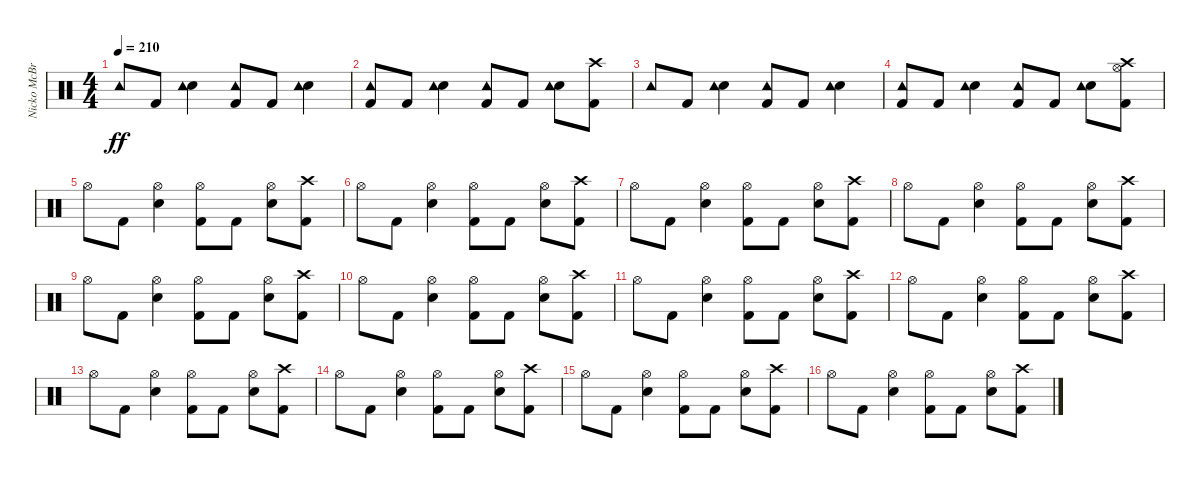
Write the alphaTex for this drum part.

\track ("Nicko McBrain" "Nicko McBr") {instrument percussion}
\staff {score}
\articulation defaults
\ts (4 4)
\tempo 210
\clef neutral
\ks c "Tambourine (hit)".8{dy ff} "Kick (hit) 2".8
("Snare (hit) 2" "Tambourine (hit)").4 ("Kick (hit) 2" "Tambourine (hit)").8 "Kick (hit) 2".8 ("Snare (hit) 2" "Tambourine (hit)").4 |
("Kick (hit) 2" "Tambourine (hit)").8 "Kick (hit) 2".8 ("Snare (hit) 2" "Tambourine (hit)").4 ("Kick (hit) 2" "Tambourine (hit)").8 "Kick (hit) 2".8 ("Snare (hit) 2" "Tambourine (hit)").8 ("Kick (hit) 2" "Crash high (hit)").8 |
"Tambourine (hit)".8 "Kick (hit) 2".8 ("Snare (hit) 2" "Tambourine (hit)").4 ("Kick (hit) 2" "Tambourine (hit)").8 "Kick (hit) 2".8 ("Snare (hit) 2" "Tambourine (hit)").4 |
("Kick (hit) 2" "Tambourine (hit)").8 "Kick (hit) 2".8 ("Snare (hit) 2" "Tambourine (hit)").4 ("Kick (hit) 2" "Tambourine (hit)").8 "Kick (hit) 2".8 ("Snare (hit) 2" "Tambourine (hit)").8 ("Kick (hit) 2" "Hi-Hat (open)" "Crash high (hit)").8 |
"Hi-Hat (open)".8 "Kick (hit) 2".8 ("Snare (hit) 2" "Hi-Hat (open)").4 ("Kick (hit) 2" "Hi-Hat (open)").8 "Kick (hit) 2".8 ("Snare (hit) 2" "Hi-Hat (open)").8 ("Kick (hit) 2" "Crash high (hit)").8 |
"Hi-Hat (open)".8 "Kick (hit) 2".8 ("Snare (hit) 2" "Hi-Hat (open)").4 ("Kick (hit) 2" "Hi-Hat (open)").8 "Kick (hit) 2".8 ("Snare (hit) 2" "Hi-Hat (open)").8 ("Kick (hit) 2" "Crash high (hit)").8 |
"Hi-Hat (open)".8 "Kick (hit) 2".8 ("Snare (hit) 2" "Hi-Hat (open)").4 ("Kick (hit) 2" "Hi-Hat (open)").8 "Kick (hit) 2".8 ("Snare (hit) 2" "Hi-Hat (open)").8 ("Kick (hit) 2" "Crash high (hit)").8 |
"Hi-Hat (open)".8 "Kick (hit) 2".8 ("Snare (hit) 2" "Hi-Hat (open)").4 ("Kick (hit) 2" "Hi-Hat (open)").8 "Kick (hit) 2".8 ("Snare (hit) 2" "Hi-Hat (open)").8 ("Kick (hit) 2" "Crash high (hit)").8 |
"Hi-Hat (open)".8 "Kick (hit) 2".8 ("Snare (hit) 2" "Hi-Hat (open)").4 ("Kick (hit) 2" "Hi-Hat (open)").8 "Kick (hit) 2".8 ("Snare (hit) 2" "Hi-Hat (open)").8 ("Kick (hit) 2" "Crash high (hit)").8 |
"Hi-Hat (open)".8 "Kick (hit) 2".8 ("Snare (hit) 2" "Hi-Hat (open)").4 ("Kick (hit) 2" "Hi-Hat (open)").8 "Kick (hit) 2".8 ("Snare (hit) 2" "Hi-Hat (open)").8 ("Kick (hit) 2" "Crash high (hit)").8 |
"Hi-Hat (open)".8 "Kick (hit) 2".8 ("Snare (hit) 2" "Hi-Hat (open)").4 ("Kick (hit) 2" "Hi-Hat (open)").8 "Kick (hit) 2".8 ("Snare (hit) 2" "Hi-Hat (open)").8 ("Kick (hit) 2" "Crash high (hit)").8 |
"Hi-Hat (open)".8 "Kick (hit) 2".8 ("Snare (hit) 2" "Hi-Hat (open)").4 ("Kick (hit) 2" "Hi-Hat (open)").8 "Kick (hit) 2".8 ("Snare (hit) 2" "Hi-Hat (open)").8 ("Kick (hit) 2" "Crash high (hit)").8 |
"Hi-Hat (open)".8 "Kick (hit) 2".8 ("Snare (hit) 2" "Hi-Hat (open)").4 ("Kick (hit) 2" "Hi-Hat (open)").8 "Kick (hit) 2".8 ("Snare (hit) 2" "Hi-Hat (open)").8 ("Kick (hit) 2" "Crash high (hit)").8 |
"Hi-Hat (open)".8 "Kick (hit) 2".8 ("Snare (hit) 2" "Hi-Hat (open)").4 ("Kick (hit) 2" "Hi-Hat (open)").8 "Kick (hit) 2".8 ("Snare (hit) 2" "Hi-Hat (open)").8 ("Kick (hit) 2" "Crash high (hit)").8 |
"Hi-Hat (open)".8 "Kick (hit) 2".8 ("Snare (hit) 2" "Hi-Hat (open)").4 ("Kick (hit) 2" "Hi-Hat (open)").8 "Kick (hit) 2".8 ("Snare (hit) 2" "Hi-Hat (open)").8 ("Kick (hit) 2" "Crash high (hit)").8 |
"Hi-Hat (open)".8 "Kick (hit) 2".8 ("Snare (hit) 2" "Hi-Hat (open)").4 ("Kick (hit) 2" "Hi-Hat (open)").8 "Kick (hit) 2".8 ("Snare (hit) 2" "Hi-Hat (open)").8 ("Kick (hit) 2" "Crash high (hit)").8
